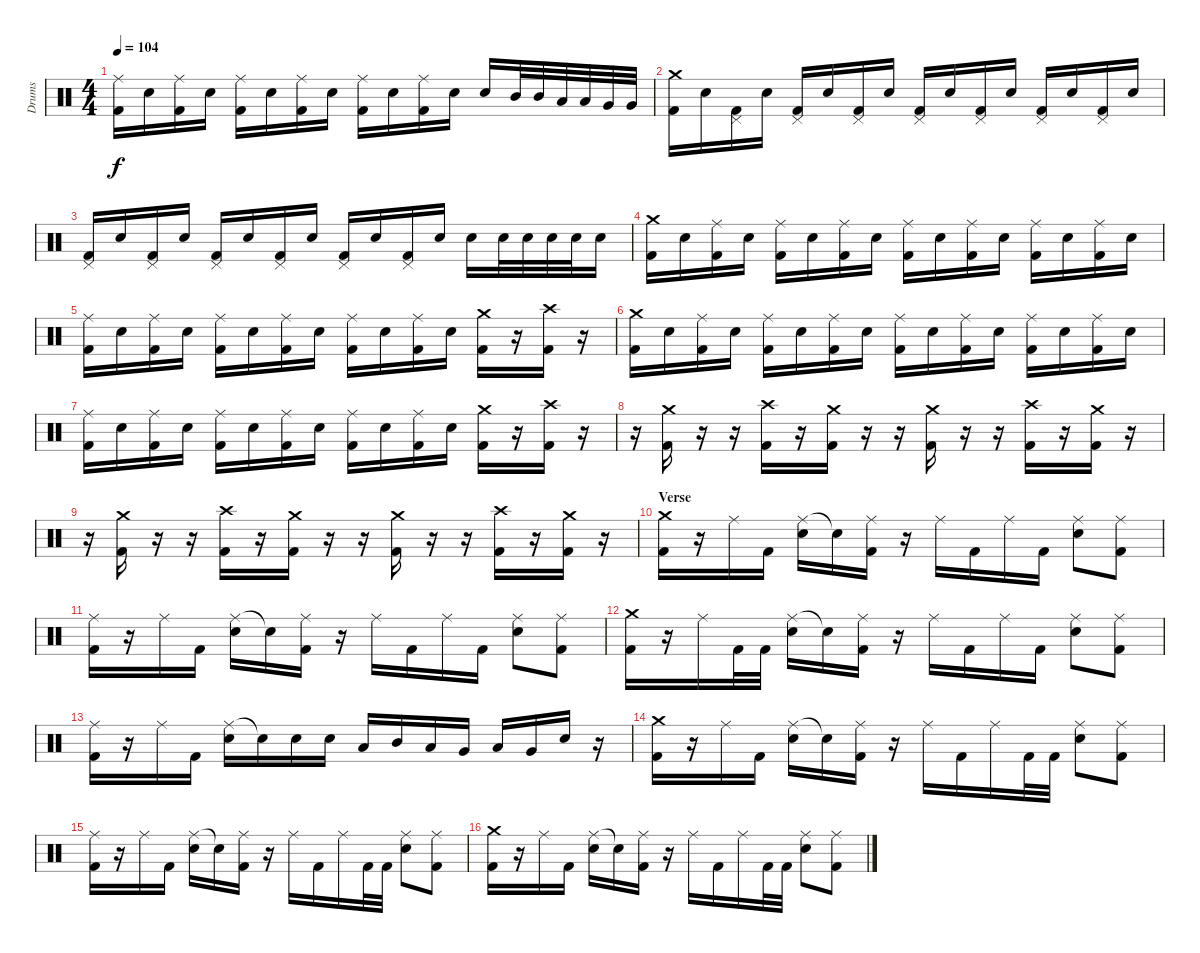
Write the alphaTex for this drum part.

\track ("Drums" "Drums") {instrument percussion}
\staff {score}
\articulation defaults
\ts (4 4)
\tempo 104
\clef neutral
\ks c
("Ride (middle)" "Kick (hit) 2").16{dy f} "Electric Snare (hit)".16 ("Ride (middle)" "Kick (hit) 2").16 "Electric Snare (hit)".16 ("Ride (middle)" "Kick (hit) 2").16 "Electric Snare (hit)".16 ("Ride (middle)" "Kick (hit) 2").16 "Electric Snare (hit)".16 ("Ride (middle)" "Kick (hit) 2").16 "Electric Snare (hit)".16 ("Ride (middle)" "Kick (hit) 2").16 "Electric Snare (hit)".16 "Electric Snare (hit)".16 "Mid Tom (hit)".32 "Mid Tom (hit)".32 "Low Tom (hit)".32 "Low Tom (hit)".32 "Very Low Tom (hit)".32 "Very Low Tom (hit)".32 |
("Crash medium (hit)" "Kick (hit) 2").16 "Electric Snare (hit)".16 ("Pedal Hi-Hat (hit)" "Kick (hit) 2").16 "Electric Snare (hit)".16 ("Pedal Hi-Hat (hit)" "Kick (hit) 2").16 "Electric Snare (hit)".16 ("Pedal Hi-Hat (hit)" "Kick (hit) 2").16 "Electric Snare (hit)".16 ("Pedal Hi-Hat (hit)" "Kick (hit) 2").16 "Electric Snare (hit)".16 ("Pedal Hi-Hat (hit)" "Kick (hit) 2").16 "Electric Snare (hit)".16 ("Pedal Hi-Hat (hit)" "Kick (hit) 2").16 "Electric Snare (hit)".16 ("Pedal Hi-Hat (hit)" "Kick (hit) 2").16 "Electric Snare (hit)".16 |
("Pedal Hi-Hat (hit)" "Kick (hit) 2").16 "Electric Snare (hit)".16 ("Pedal Hi-Hat (hit)" "Kick (hit) 2").16 "Electric Snare (hit)".16 ("Pedal Hi-Hat (hit)" "Kick (hit) 2").16 "Electric Snare (hit)".16 ("Pedal Hi-Hat (hit)" "Kick (hit) 2").16 "Electric Snare (hit)".16 ("Pedal Hi-Hat (hit)" "Kick (hit) 2").16 "Electric Snare (hit)".16 ("Pedal Hi-Hat (hit)" "Kick (hit) 2").16 "Electric Snare (hit)".16 "Electric Snare (hit)".16 "Electric Snare (hit)".32 "Electric Snare (hit)".32 "Electric Snare (hit)".32 "Electric Snare (hit)".32 "Electric Snare (hit)".16 |
\section ("" "")
("Crash medium (hit)" "Kick (hit) 2").16 "Electric Snare (hit)".16 ("Ride (middle)" "Kick (hit) 2").16 "Electric Snare (hit)".16 ("Ride (middle)" "Kick (hit) 2").16 "Electric Snare (hit)".16 ("Ride (middle)" "Kick (hit) 2").16 "Electric Snare (hit)".16 ("Ride (middle)" "Kick (hit) 2").16 "Electric Snare (hit)".16 ("Ride (middle)" "Kick (hit) 2").16 "Electric Snare (hit)".16 ("Ride (middle)" "Kick (hit) 2").16 "Electric Snare (hit)".16 ("Ride (middle)" "Kick (hit) 2").16 "Electric Snare (hit)".16 |
("Ride (middle)" "Kick (hit) 2").16 "Electric Snare (hit)".16 ("Ride (middle)" "Kick (hit) 2").16 "Electric Snare (hit)".16 ("Ride (middle)" "Kick (hit) 2").16 "Electric Snare (hit)".16 ("Ride (middle)" "Kick (hit) 2").16 "Electric Snare (hit)".16 ("Ride (middle)" "Kick (hit) 2").16 "Electric Snare (hit)".16 ("Ride (middle)" "Kick (hit) 2").16 "Electric Snare (hit)".16 ("Crash medium (hit)" "Kick (hit) 2").16 r.16 ("Crash high (hit)" "Kick (hit) 2").16 r.16 |
("Crash medium (hit)" "Kick (hit) 2").16 "Electric Snare (hit)".16 ("Ride (middle)" "Kick (hit) 2").16 "Electric Snare (hit)".16 ("Ride (middle)" "Kick (hit) 2").16 "Electric Snare (hit)".16 ("Ride (middle)" "Kick (hit) 2").16 "Electric Snare (hit)".16 ("Ride (middle)" "Kick (hit) 2").16 "Electric Snare (hit)".16 ("Ride (middle)" "Kick (hit) 2").16 "Electric Snare (hit)".16 ("Ride (middle)" "Kick (hit) 2").16 "Electric Snare (hit)".16 ("Ride (middle)" "Kick (hit) 2").16 "Electric Snare (hit)".16 |
("Ride (middle)" "Kick (hit) 2").16 "Electric Snare (hit)".16 ("Ride (middle)" "Kick (hit) 2").16 "Electric Snare (hit)".16 ("Ride (middle)" "Kick (hit) 2").16 "Electric Snare (hit)".16 ("Ride (middle)" "Kick (hit) 2").16 "Electric Snare (hit)".16 ("Ride (middle)" "Kick (hit) 2").16 "Electric Snare (hit)".16 ("Ride (middle)" "Kick (hit) 2").16 "Electric Snare (hit)".16 ("Crash medium (hit)" "Kick (hit) 2").16 r.16 ("Crash high (hit)" "Kick (hit) 2").16 r.16 |
\section ("" "")
r.16 ("Crash medium (hit)" "Kick (hit) 2").16 r.16 r.16 ("Crash high (hit)" "Kick (hit) 2").16 r.16 ("Crash medium (hit)" "Kick (hit) 2").16 r.16 r.16 ("Crash medium (hit)" "Kick (hit) 2").16 r.16 r.16 ("Crash high (hit)" "Kick (hit) 2").16 r.16 ("Crash medium (hit)" "Kick (hit) 2").16 r.16 |
r.16 ("Crash medium (hit)" "Kick (hit) 2").16 r.16 r.16 ("Crash high (hit)" "Kick (hit) 2").16 r.16 ("Crash medium (hit)" "Kick (hit) 2").16 r.16 r.16 ("Crash medium (hit)" "Kick (hit) 2").16 r.16 r.16 ("Crash high (hit)" "Kick (hit) 2").16 r.16 ("Crash medium (hit)" "Kick (hit) 2").16 r.16 |
\section ("" "Verse")
("Crash medium (hit)" "Kick (hit) 2").16 r.16 "Ride (middle)".16 "Kick (hit) 2".16 ("Ride (middle)" "Electric Snare (hit)").16 "Snare (hit)"{t}.16 ("Ride (middle)" "Kick (hit) 2").16 r.16 "Ride (middle)".16 "Kick (hit) 2".16 "Ride (middle)".16 "Kick (hit) 2".16 ("Ride (middle)" "Electric Snare (hit)").8 ("Ride (middle)" "Kick (hit) 2").8 |
("Ride (middle)" "Kick (hit) 2").16 r.16 "Ride (middle)".16 "Kick (hit) 2".16 ("Ride (middle)" "Electric Snare (hit)").16 "Snare (hit)"{t}.16 ("Ride (middle)" "Kick (hit) 2").16 r.16 "Ride (middle)".16 "Kick (hit) 2".16 "Ride (middle)".16 "Kick (hit) 2".16 ("Ride (middle)" "Electric Snare (hit)").8 ("Ride (middle)" "Kick (hit) 2").8 |
("Crash medium (hit)" "Kick (hit) 2").16 r.16 "Ride (middle)".16 "Kick (hit) 2".32 "Kick (hit) 2".32 ("Ride (middle)" "Electric Snare (hit)").16 "Snare (hit)"{t}.16 ("Ride (middle)" "Kick (hit) 2").16 r.16 "Ride (middle)".16 "Kick (hit) 2".16 "Ride (middle)".16 "Kick (hit) 2".16 ("Ride (middle)" "Electric Snare (hit)").8 ("Ride (middle)" "Kick (hit) 2").8 |
("Ride (middle)" "Kick (hit) 2").16 r.16 "Ride (middle)".16 "Kick (hit) 2".16 ("Ride (middle)" "Electric Snare (hit)").16 "Snare (hit)"{t}.16 "Electric Snare (hit)".16 "Electric Snare (hit)".16 "Low Tom (hit)".16 "Mid Tom (hit)".16 "Low Tom (hit)".16 "Very Low Tom (hit)".16 "Low Tom (hit)".16 "Very Low Tom (hit)".16 "Electric Snare (hit)".16 r.16 |
("Crash medium (hit)" "Kick (hit) 2").16 r.16 "Ride (middle)".16 "Kick (hit) 2".16 ("Ride (middle)" "Electric Snare (hit)").16 "Snare (hit)"{t}.16 ("Ride (middle)" "Kick (hit) 2").16 r.16 "Ride (middle)".16 "Kick (hit) 2".16 "Ride (middle)".16 "Kick (hit) 2".32 "Kick (hit) 2".32 ("Ride (middle)" "Electric Snare (hit)").8 ("Ride (middle)" "Kick (hit) 2").8 |
("Ride (middle)" "Kick (hit) 2").16 r.16 "Ride (middle)".16 "Kick (hit) 2".16 ("Ride (middle)" "Electric Snare (hit)").16 "Snare (hit)"{t}.16 ("Ride (middle)" "Kick (hit) 2").16 r.16 "Ride (middle)".16 "Kick (hit) 2".16 "Ride (middle)".16 "Kick (hit) 2".32 "Kick (hit) 2".32 ("Ride (middle)" "Electric Snare (hit)").8 ("Ride (middle)" "Kick (hit) 2").8 |
("Crash medium (hit)" "Kick (hit) 2").16 r.16 "Ride (middle)".16 "Kick (hit) 2".16 ("Ride (middle)" "Electric Snare (hit)").16 "Snare (hit)"{t}.16 ("Ride (middle)" "Kick (hit) 2").16 r.16 "Ride (middle)".16 "Kick (hit) 2".16 "Ride (middle)".16 "Kick (hit) 2".32 "Kick (hit) 2".32 ("Ride (middle)" "Electric Snare (hit)").8 ("Ride (middle)" "Kick (hit) 2").8
